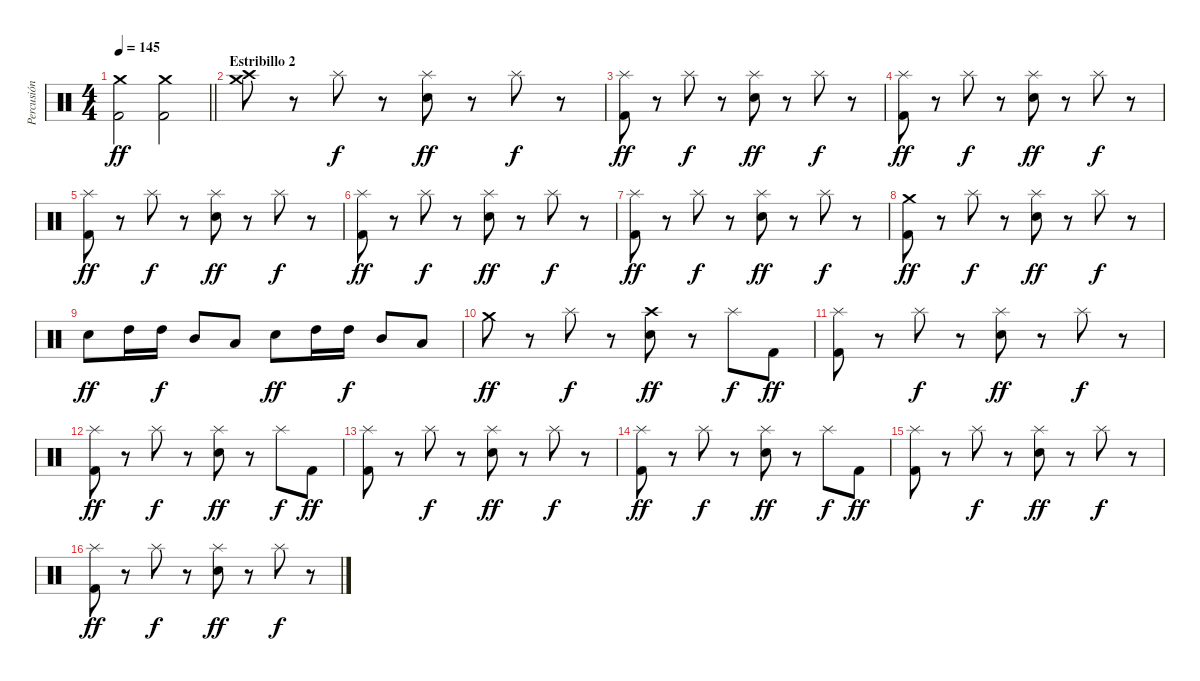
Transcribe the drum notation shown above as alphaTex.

\track ("Percusión" "Percusión") {instrument percussion}
\staff {score}
\articulation defaults
\ts (4 4)
\tempo 145
\clef neutral
\barLineRight lightlight
\ks c
("Crash medium (hit)" "Kick (hit) 2").2{dy ff} ("Crash medium (hit)" "Kick (hit) 2").2 |
\section ("" "Estribillo 2")
("Crash medium (hit)" "Crash high (hit)").8 r.8 "Splash (hit)".8{dy f} r.8 ("Splash (hit)" "Electric Snare (hit)").8{dy ff} r.8 "Splash (hit)".8{dy f} r.8 |
("Splash (hit)" "Kick (hit) 2").8{dy ff} r.8 "Splash (hit)".8{dy f} r.8 ("Splash (hit)" "Electric Snare (hit)").8{dy ff} r.8 "Splash (hit)".8{dy f} r.8 |
("Splash (hit)" "Kick (hit) 2").8{dy ff} r.8 "Splash (hit)".8{dy f} r.8 ("Splash (hit)" "Electric Snare (hit)").8{dy ff} r.8 "Splash (hit)".8{dy f} r.8 |
("Splash (hit)" "Kick (hit) 2").8{dy ff} r.8 "Splash (hit)".8{dy f} r.8 ("Splash (hit)" "Electric Snare (hit)").8{dy ff} r.8 "Splash (hit)".8{dy f} r.8 |
("Splash (hit)" "Kick (hit) 2").8{dy ff} r.8 "Splash (hit)".8{dy f} r.8 ("Splash (hit)" "Electric Snare (hit)").8{dy ff} r.8 "Splash (hit)".8{dy f} r.8 |
("Splash (hit)" "Kick (hit) 2").8{dy ff} r.8 "Splash (hit)".8{dy f} r.8 ("Splash (hit)" "Electric Snare (hit)").8{dy ff} r.8 "Splash (hit)".8{dy f} r.8 |
("Crash medium (hit)" "Kick (hit) 2").8{dy ff} r.8 "Splash (hit)".8{dy f} r.8 ("Splash (hit)" "Electric Snare (hit)").8{dy ff} r.8 "Splash (hit)".8{dy f} r.8 |
"Electric Snare (hit)".8{dy ff} "High Tom (hit)".16 "High Tom (hit)".16{dy f} "Mid Tom (hit)".8 "Low Tom (hit)".8 "Electric Snare (hit)".8{dy ff} "High Tom (hit)".16 "High Tom (hit)".16{dy f} "Mid Tom (hit)".8 "Low Tom (hit)".8 |
"Crash medium (hit)".8{dy ff} r.8 "Splash (hit)".8{dy f} r.8 ("Crash high (hit)" "Electric Snare (hit)").8{dy ff} r.8 "Splash (hit)".8{dy f} "Kick (hit) 2".8{dy ff} |
("Splash (hit)" "Kick (hit) 2").8 r.8 "Splash (hit)".8{dy f} r.8 ("Splash (hit)" "Electric Snare (hit)").8{dy ff} r.8 "Splash (hit)".8{dy f} r.8 |
("Splash (hit)" "Kick (hit) 2").8{dy ff} r.8 "Splash (hit)".8{dy f} r.8 ("Splash (hit)" "Electric Snare (hit)").8{dy ff} r.8 "Splash (hit)".8{dy f} "Kick (hit) 2".8{dy ff} |
("Splash (hit)" "Kick (hit) 2").8 r.8 "Splash (hit)".8{dy f} r.8 ("Splash (hit)" "Electric Snare (hit)").8{dy ff} r.8 "Splash (hit)".8{dy f} r.8 |
("Splash (hit)" "Kick (hit) 2").8{dy ff} r.8 "Splash (hit)".8{dy f} r.8 ("Splash (hit)" "Electric Snare (hit)").8{dy ff} r.8 "Splash (hit)".8{dy f} "Kick (hit) 2".8{dy ff} |
("Splash (hit)" "Kick (hit) 2").8 r.8 "Splash (hit)".8{dy f} r.8 ("Splash (hit)" "Electric Snare (hit)").8{dy ff} r.8 "Splash (hit)".8{dy f} r.8 |
("Splash (hit)" "Kick (hit) 2").8{dy ff} r.8 "Splash (hit)".8{dy f} r.8 ("Splash (hit)" "Electric Snare (hit)").8{dy ff} r.8 "Splash (hit)".8{dy f} r.8
